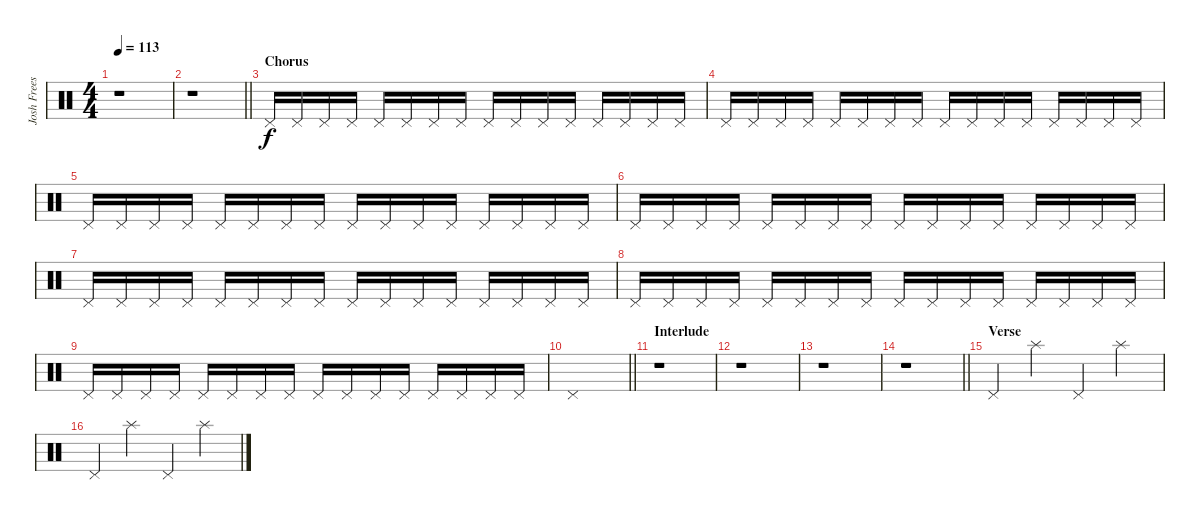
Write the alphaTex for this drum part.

\track ("Josh Freese (Studio Drummer)" "Josh Frees") {instrument percussion}
\staff {score}
\articulation defaults
\ts (4 4)
\tempo 113
\clef neutral
\ks c
r.1{dy f} |
\barLineRight lightlight
r.1 |
\section ("" "Chorus")
"Pedal Hi-Hat (hit)".16 "Pedal Hi-Hat (hit)".16 "Pedal Hi-Hat (hit)".16 "Pedal Hi-Hat (hit)".16 "Pedal Hi-Hat (hit)".16 "Pedal Hi-Hat (hit)".16 "Pedal Hi-Hat (hit)".16 "Pedal Hi-Hat (hit)".16 "Pedal Hi-Hat (hit)".16 "Pedal Hi-Hat (hit)".16 "Pedal Hi-Hat (hit)".16 "Pedal Hi-Hat (hit)".16 "Pedal Hi-Hat (hit)".16 "Pedal Hi-Hat (hit)".16 "Pedal Hi-Hat (hit)".16 "Pedal Hi-Hat (hit)".16 |
"Pedal Hi-Hat (hit)".16 "Pedal Hi-Hat (hit)".16 "Pedal Hi-Hat (hit)".16 "Pedal Hi-Hat (hit)".16 "Pedal Hi-Hat (hit)".16 "Pedal Hi-Hat (hit)".16 "Pedal Hi-Hat (hit)".16 "Pedal Hi-Hat (hit)".16 "Pedal Hi-Hat (hit)".16 "Pedal Hi-Hat (hit)".16 "Pedal Hi-Hat (hit)".16 "Pedal Hi-Hat (hit)".16 "Pedal Hi-Hat (hit)".16 "Pedal Hi-Hat (hit)".16 "Pedal Hi-Hat (hit)".16 "Pedal Hi-Hat (hit)".16 |
"Pedal Hi-Hat (hit)".16 "Pedal Hi-Hat (hit)".16 "Pedal Hi-Hat (hit)".16 "Pedal Hi-Hat (hit)".16 "Pedal Hi-Hat (hit)".16 "Pedal Hi-Hat (hit)".16 "Pedal Hi-Hat (hit)".16 "Pedal Hi-Hat (hit)".16 "Pedal Hi-Hat (hit)".16 "Pedal Hi-Hat (hit)".16 "Pedal Hi-Hat (hit)".16 "Pedal Hi-Hat (hit)".16 "Pedal Hi-Hat (hit)".16 "Pedal Hi-Hat (hit)".16 "Pedal Hi-Hat (hit)".16 "Pedal Hi-Hat (hit)".16 |
"Pedal Hi-Hat (hit)".16 "Pedal Hi-Hat (hit)".16 "Pedal Hi-Hat (hit)".16 "Pedal Hi-Hat (hit)".16 "Pedal Hi-Hat (hit)".16 "Pedal Hi-Hat (hit)".16 "Pedal Hi-Hat (hit)".16 "Pedal Hi-Hat (hit)".16 "Pedal Hi-Hat (hit)".16 "Pedal Hi-Hat (hit)".16 "Pedal Hi-Hat (hit)".16 "Pedal Hi-Hat (hit)".16 "Pedal Hi-Hat (hit)".16 "Pedal Hi-Hat (hit)".16 "Pedal Hi-Hat (hit)".16 "Pedal Hi-Hat (hit)".16 |
"Pedal Hi-Hat (hit)".16 "Pedal Hi-Hat (hit)".16 "Pedal Hi-Hat (hit)".16 "Pedal Hi-Hat (hit)".16 "Pedal Hi-Hat (hit)".16 "Pedal Hi-Hat (hit)".16 "Pedal Hi-Hat (hit)".16 "Pedal Hi-Hat (hit)".16 "Pedal Hi-Hat (hit)".16 "Pedal Hi-Hat (hit)".16 "Pedal Hi-Hat (hit)".16 "Pedal Hi-Hat (hit)".16 "Pedal Hi-Hat (hit)".16 "Pedal Hi-Hat (hit)".16 "Pedal Hi-Hat (hit)".16 "Pedal Hi-Hat (hit)".16 |
"Pedal Hi-Hat (hit)".16 "Pedal Hi-Hat (hit)".16 "Pedal Hi-Hat (hit)".16 "Pedal Hi-Hat (hit)".16 "Pedal Hi-Hat (hit)".16 "Pedal Hi-Hat (hit)".16 "Pedal Hi-Hat (hit)".16 "Pedal Hi-Hat (hit)".16 "Pedal Hi-Hat (hit)".16 "Pedal Hi-Hat (hit)".16 "Pedal Hi-Hat (hit)".16 "Pedal Hi-Hat (hit)".16 "Pedal Hi-Hat (hit)".16 "Pedal Hi-Hat (hit)".16 "Pedal Hi-Hat (hit)".16 "Pedal Hi-Hat (hit)".16 |
"Pedal Hi-Hat (hit)".16 "Pedal Hi-Hat (hit)".16 "Pedal Hi-Hat (hit)".16 "Pedal Hi-Hat (hit)".16 "Pedal Hi-Hat (hit)".16 "Pedal Hi-Hat (hit)".16 "Pedal Hi-Hat (hit)".16 "Pedal Hi-Hat (hit)".16 "Pedal Hi-Hat (hit)".16 "Pedal Hi-Hat (hit)".16 "Pedal Hi-Hat (hit)".16 "Pedal Hi-Hat (hit)".16 "Pedal Hi-Hat (hit)".16 "Pedal Hi-Hat (hit)".16 "Pedal Hi-Hat (hit)".16 "Pedal Hi-Hat (hit)".16 |
\barLineRight lightlight "Pedal Hi-Hat (hit)".1
|
\section ("" "Interlude")
r.1 |
r.1 |
r.1 |
\barLineRight lightlight
r.1 |
\section ("" "Verse")
"Pedal Hi-Hat (hit)".4 "Splash (hit)".4 "Pedal Hi-Hat (hit)".4 "Splash (hit)".4 |
"Pedal Hi-Hat (hit)".4 "Splash (hit)".4 "Pedal Hi-Hat (hit)".4 "Splash (hit)".4
